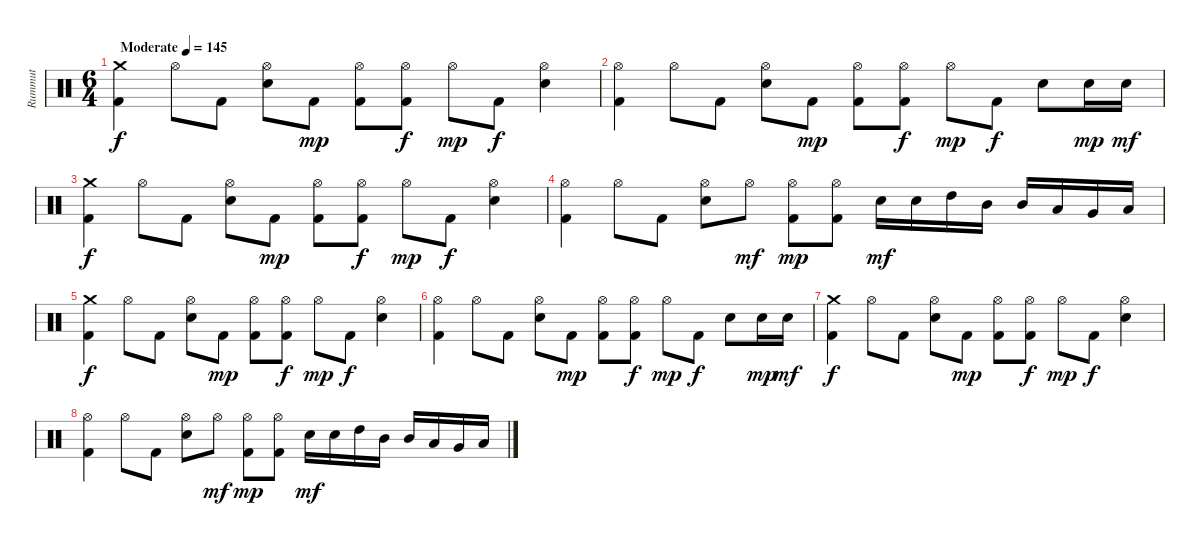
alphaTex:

\track ("Rummut" "Rummut") {instrument percussion}
\staff {score}
\articulation defaults
\ts (6 4)
\tempo (145 "Moderate")
\clef neutral
\ks c
("Crash medium (hit)" "Kick (hit) 2").4{dy f} "Hi-Hat (open)".8 "Kick (hit) 2".8 ("Hi-Hat (open)" "Electric Snare (hit)").8 "Kick (hit) 2".8{dy mp} ("Hi-Hat (open)" "Kick (hit) 2").8 ("Hi-Hat (open)" "Kick (hit) 2").8{dy f} "Hi-Hat (open)".8{dy mp} "Kick (hit) 2".8{dy f} ("Hi-Hat (open)" "Electric Snare (hit)").4 |
("Hi-Hat (open)" "Kick (hit) 2").4 "Hi-Hat (open)".8 "Kick (hit) 2".8 ("Hi-Hat (open)" "Electric Snare (hit)").8 "Kick (hit) 2".8{dy mp} ("Hi-Hat (open)" "Kick (hit) 2").8 ("Hi-Hat (open)" "Kick (hit) 2").8{dy f} "Hi-Hat (open)".8{dy mp} "Kick (hit) 2".8{dy f} "Electric Snare (hit)".8 "Electric Snare (hit)".16{dy mp} "Electric Snare (hit)".16{dy mf} |
("Crash medium (hit)" "Kick (hit) 2").4{dy f} "Hi-Hat (open)".8 "Kick (hit) 2".8 ("Hi-Hat (open)" "Electric Snare (hit)").8 "Kick (hit) 2".8{dy mp} ("Hi-Hat (open)" "Kick (hit) 2").8 ("Hi-Hat (open)" "Kick (hit) 2").8{dy f} "Hi-Hat (open)".8{dy mp} "Kick (hit) 2".8{dy f} ("Hi-Hat (open)" "Electric Snare (hit)").4 |
("Hi-Hat (open)" "Kick (hit) 2").4 "Hi-Hat (open)".8 "Kick (hit) 2".8 ("Hi-Hat (open)" "Electric Snare (hit)").8 "Hi-Hat (open)".8{dy mf} ("Hi-Hat (open)" "Kick (hit) 2").8{dy mp} ("Hi-Hat (open)" "Kick (hit) 2").8 "Electric Snare (hit)".16{dy mf} "Electric Snare (hit)".16 "High Tom (hit)".16 "Mid Tom (hit)".16 "Mid Tom (hit)".16 "Low Tom (hit)".16 "Very Low Tom (hit)".16 "Low Floor Tom (hit)".16 |
("Crash medium (hit)" "Kick (hit) 2").4{dy f} "Hi-Hat (open)".8 "Kick (hit) 2".8 ("Hi-Hat (open)" "Electric Snare (hit)").8 "Kick (hit) 2".8{dy mp} ("Hi-Hat (open)" "Kick (hit) 2").8 ("Hi-Hat (open)" "Kick (hit) 2").8{dy f} "Hi-Hat (open)".8{dy mp} "Kick (hit) 2".8{dy f} ("Hi-Hat (open)" "Electric Snare (hit)").4 |
("Hi-Hat (open)" "Kick (hit) 2").4 "Hi-Hat (open)".8 "Kick (hit) 2".8 ("Hi-Hat (open)" "Electric Snare (hit)").8 "Kick (hit) 2".8{dy mp} ("Hi-Hat (open)" "Kick (hit) 2").8 ("Hi-Hat (open)" "Kick (hit) 2").8{dy f} "Hi-Hat (open)".8{dy mp} "Kick (hit) 2".8{dy f} "Electric Snare (hit)".8 "Electric Snare (hit)".16{dy mp} "Electric Snare (hit)".16{dy mf} |
("Crash medium (hit)" "Kick (hit) 2").4{dy f} "Hi-Hat (open)".8 "Kick (hit) 2".8 ("Hi-Hat (open)" "Electric Snare (hit)").8 "Kick (hit) 2".8{dy mp} ("Hi-Hat (open)" "Kick (hit) 2").8 ("Hi-Hat (open)" "Kick (hit) 2").8{dy f} "Hi-Hat (open)".8{dy mp} "Kick (hit) 2".8{dy f} ("Hi-Hat (open)" "Electric Snare (hit)").4 |
("Hi-Hat (open)" "Kick (hit) 2").4 "Hi-Hat (open)".8 "Kick (hit) 2".8 ("Hi-Hat (open)" "Electric Snare (hit)").8 "Hi-Hat (open)".8{dy mf} ("Hi-Hat (open)" "Kick (hit) 2").8{dy mp} ("Hi-Hat (open)" "Kick (hit) 2").8 "Electric Snare (hit)".16{dy mf} "Electric Snare (hit)".16 "High Tom (hit)".16 "Mid Tom (hit)".16 "Mid Tom (hit)".16 "Low Tom (hit)".16 "Very Low Tom (hit)".16 "Low Floor Tom (hit)".16
